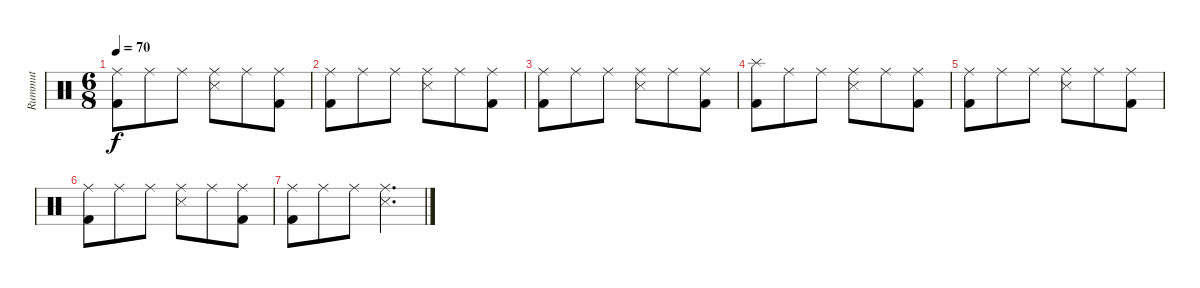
\track ("Rummut" "Rummut") {instrument percussion}
\staff {score}
\articulation defaults
\ts (6 8)
\tempo 70
\clef neutral
\ks c
("Ride (middle)" "Kick (hit) 2").8{dy f} "Ride (middle)".8 "Ride (middle)".8 ("Ride (middle)" "Snare (side stick) 3").8 "Ride (middle)".8 ("Ride (middle)" "Kick (hit) 2").8 |
("Ride (middle)" "Kick (hit) 2").8 "Ride (middle)".8 "Ride (middle)".8 ("Ride (middle)" "Snare (side stick) 3").8 "Ride (middle)".8 ("Ride (middle)" "Kick (hit) 2").8 |
("Ride (middle)" "Kick (hit) 2").8 "Ride (middle)".8 "Ride (middle)".8 ("Ride (middle)" "Snare (side stick) 3").8 "Ride (middle)".8 ("Ride (middle)" "Kick (hit) 2").8 |
("Splash (hit)" "Kick (hit) 2").8 "Ride (middle)".8 "Ride (middle)".8 ("Ride (middle)" "Snare (side stick) 3").8 "Ride (middle)".8 ("Ride (middle)" "Kick (hit) 2").8 |
("Ride (middle)" "Kick (hit) 2").8 "Ride (middle)".8 "Ride (middle)".8 ("Ride (middle)" "Snare (side stick) 3").8 "Ride (middle)".8 ("Ride (middle)" "Kick (hit) 2").8 |
("Ride (middle)" "Kick (hit) 2").8 "Ride (middle)".8 "Ride (middle)".8 ("Ride (middle)" "Snare (side stick) 3").8 "Ride (middle)".8 ("Ride (middle)" "Kick (hit) 2").8 |
("Ride (middle)" "Kick (hit) 2").8 "Ride (middle)".8 "Ride (middle)".8 ("Ride (middle)" "Snare (side stick) 3").4{d}
